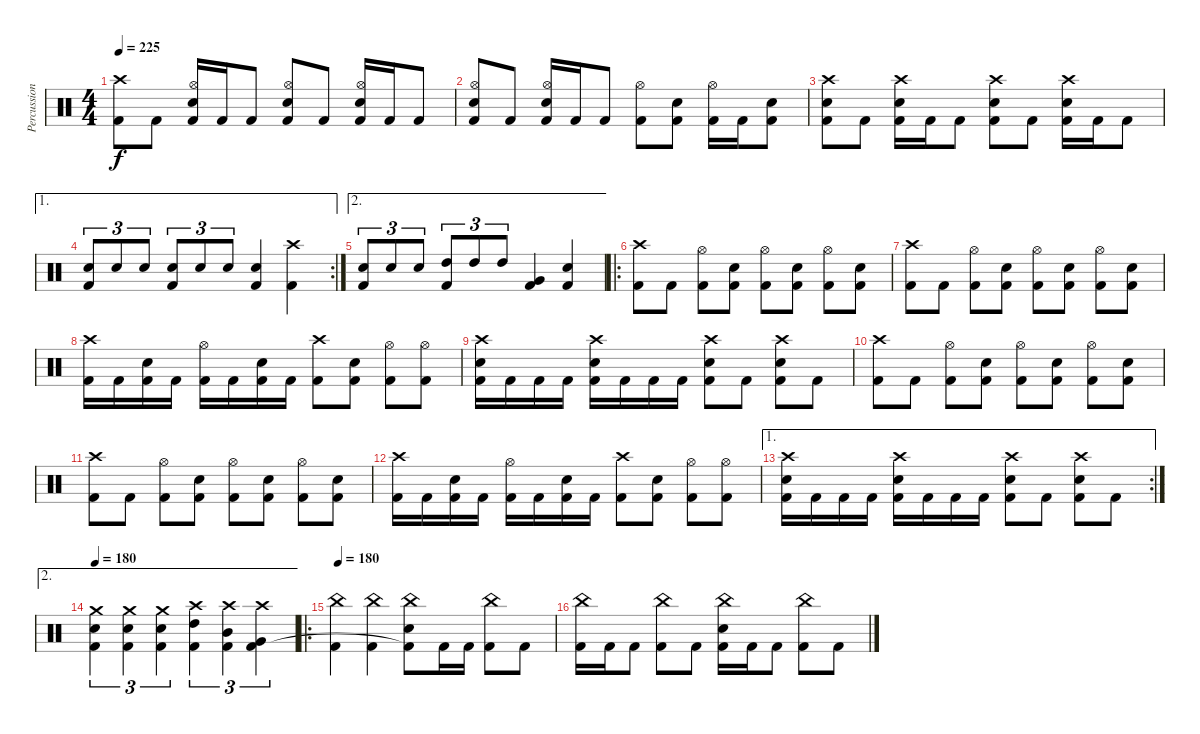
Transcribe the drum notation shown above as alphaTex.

\track ("Percussion" "Percussion") {instrument percussion}
\staff {score}
\articulation defaults
\ts (4 4)
\tempo 225
\clef neutral
\ks c
("Crash high (hit)" "Kick (hit) 2").8{dy f} "Kick (hit) 2".8 ("Hi-Hat (open)" "Snare (hit) 2" "Kick (hit) 2").16 "Kick (hit) 2".16 "Kick (hit) 2".8 ("Hi-Hat (open)" "Snare (hit) 2" "Kick (hit) 2").8 "Kick (hit) 2".8 ("Hi-Hat (open)" "Snare (hit) 2" "Kick (hit) 2").16 "Kick (hit) 2".16 "Kick (hit) 2".8 |
("Hi-Hat (open)" "Snare (hit) 2" "Kick (hit) 2").8 "Kick (hit) 2".8 ("Hi-Hat (open)" "Snare (hit) 2" "Kick (hit) 2").16 "Kick (hit) 2".16 "Kick (hit) 2".8 ("Hi-Hat (open)" "Kick (hit) 2").8 ("Snare (hit) 2" "Kick (hit) 2").8 ("Hi-Hat (open)" "Kick (hit) 2").16 "Kick (hit) 2".16 ("Snare (hit) 2" "Kick (hit) 2").8 |
("Crash high (hit)" "Snare (hit) 2" "Kick (hit) 2").8 "Kick (hit) 2".8 ("Crash high (hit)" "Snare (hit) 2" "Kick (hit) 2").16 "Kick (hit) 2".16 "Kick (hit) 2".8 ("Crash high (hit)" "Snare (hit) 2" "Kick (hit) 2").8 "Kick (hit) 2".8 ("Crash high (hit)" "Snare (hit) 2" "Kick (hit) 2").16 "Kick (hit) 2".16 "Kick (hit) 2".8 |
\ae 1
\rc 2
("Snare (hit) 2" "Kick (hit) 2").8{tu (3 2)} "Snare (hit) 2".8{tu (3 2)} "Snare (hit) 2".8{tu (3 2)} ("Snare (hit) 2" "Kick (hit) 2").8{tu (3 2)} "Snare (hit) 2".8{tu (3 2)} "Snare (hit) 2".8{tu (3 2)} ("Snare (hit) 2" "Kick (hit) 2").4 ("Crash high (hit)" "Kick (hit) 2").4 |
\ae 2
("Snare (hit) 2" "Kick (hit) 2").8{tu (3 2)} "Snare (hit) 2".8{tu (3 2)} "Snare (hit) 2".8{tu (3 2)} ("High Tom (hit)" "Kick (hit) 2").8{tu (3 2)} "High Tom (hit)".8{tu (3 2)} "High Tom (hit)".8{tu (3 2)} ("Very Low Tom (hit)" "Kick (hit) 2").4 ("Snare (hit) 2" "Kick (hit) 2").4 |
\ro
("Crash high (hit)" "Kick (hit) 2").8 "Kick (hit) 2".8 ("Hi-Hat (open)" "Kick (hit) 2").8 ("Snare (hit) 2" "Kick (hit) 2").8 ("Hi-Hat (open)" "Kick (hit) 2").8 ("Snare (hit) 2" "Kick (hit) 2").8 ("Hi-Hat (open)" "Kick (hit) 2").8 ("Snare (hit) 2" "Kick (hit) 2").8 |
("Crash high (hit)" "Kick (hit) 2").8 "Kick (hit) 2".8 ("Hi-Hat (open)" "Kick (hit) 2").8 ("Snare (hit) 2" "Kick (hit) 2").8 ("Hi-Hat (open)" "Kick (hit) 2").8 ("Snare (hit) 2" "Kick (hit) 2").8 ("Hi-Hat (open)" "Kick (hit) 2").8 ("Snare (hit) 2" "Kick (hit) 2").8 |
("Crash high (hit)" "Kick (hit) 2").16 "Kick (hit) 2".16 ("Snare (hit) 2" "Kick (hit) 2").16 "Kick (hit) 2".16 ("Hi-Hat (open)" "Kick (hit) 2").16 "Kick (hit) 2".16 ("Snare (hit) 2" "Kick (hit) 2").16 "Kick (hit) 2".16 ("Crash high (hit)" "Kick (hit) 2").8 ("Snare (hit) 2" "Kick (hit) 2").8 ("Hi-Hat (open)" "Kick (hit) 2").8 ("Hi-Hat (open)" "Kick (hit) 2").8 |
("Crash high (hit)" "Snare (hit) 2" "Kick (hit) 2").16 "Kick (hit) 2".16 "Kick (hit) 2".16 "Kick (hit) 2".16 ("Crash high (hit)" "Snare (hit) 2" "Kick (hit) 2").16 "Kick (hit) 2".16 "Kick (hit) 2".16 "Kick (hit) 2".16 ("Crash high (hit)" "Snare (hit) 2" "Kick (hit) 2").8 "Kick (hit) 2".8 ("Crash high (hit)" "Snare (hit) 2" "Kick (hit) 2").8 "Kick (hit) 2".8 |
("Crash high (hit)" "Kick (hit) 2").8 "Kick (hit) 2".8 ("Hi-Hat (open)" "Kick (hit) 2").8 ("Snare (hit) 2" "Kick (hit) 2").8 ("Hi-Hat (open)" "Kick (hit) 2").8 ("Snare (hit) 2" "Kick (hit) 2").8 ("Hi-Hat (open)" "Kick (hit) 2").8 ("Snare (hit) 2" "Kick (hit) 2").8 |
("Crash high (hit)" "Kick (hit) 2").8 "Kick (hit) 2".8 ("Hi-Hat (open)" "Kick (hit) 2").8 ("Snare (hit) 2" "Kick (hit) 2").8 ("Hi-Hat (open)" "Kick (hit) 2").8 ("Snare (hit) 2" "Kick (hit) 2").8 ("Hi-Hat (open)" "Kick (hit) 2").8 ("Snare (hit) 2" "Kick (hit) 2").8 |
("Crash high (hit)" "Kick (hit) 2").16 "Kick (hit) 2".16 ("Snare (hit) 2" "Kick (hit) 2").16 "Kick (hit) 2".16 ("Hi-Hat (open)" "Kick (hit) 2").16 "Kick (hit) 2".16 ("Snare (hit) 2" "Kick (hit) 2").16 "Kick (hit) 2".16 ("Crash high (hit)" "Kick (hit) 2").8 ("Snare (hit) 2" "Kick (hit) 2").8 ("Hi-Hat (open)" "Kick (hit) 2").8 ("Hi-Hat (open)" "Kick (hit) 2").8 |
\ae 1
\rc 2
("Crash high (hit)" "Snare (hit) 2" "Kick (hit) 2").16 "Kick (hit) 2".16 "Kick (hit) 2".16 "Kick (hit) 2".16 ("Crash high (hit)" "Snare (hit) 2" "Kick (hit) 2").16 "Kick (hit) 2".16 "Kick (hit) 2".16 "Kick (hit) 2".16 ("Crash high (hit)" "Snare (hit) 2" "Kick (hit) 2").8 "Kick (hit) 2".8 ("Crash high (hit)" "Snare (hit) 2" "Kick (hit) 2").8 "Kick (hit) 2".8 |
\ae 2
\tempo 180
("Crash medium (hit)" "Snare (hit) 2" "Kick (hit) 2").4{tu (3 2)} ("Crash medium (hit)" "Snare (hit) 2" "Kick (hit) 2").4{tu (3 2)} ("Crash medium (hit)" "Snare (hit) 2" "Kick (hit) 2").4{tu (3 2)} ("Crash high (hit)" "High Tom (hit)" "Kick (hit) 2").4{tu (3 2)} ("Crash high (hit)" "Mid Tom (hit)" "Kick (hit) 2").4{tu (3 2)} ("Crash high (hit)" "Very Low Tom (hit)" "Kick (hit) 2").4{tu (3 2)} |
\ro
\tempo 180
("China (hit)" "Kick (hit) 2").4 ("China (hit)" "Kick (hit) 2").4 ("China (hit)" "Snare (hit) 2" "Kick (hit) 2"{t}).8 "Kick (hit) 2".16 "Kick (hit) 2".16 ("China (hit)" "Kick (hit) 2").8 "Kick (hit) 2".8 |
("China (hit)" "Kick (hit) 2").16 "Kick (hit) 2".16 "Kick (hit) 2".8 ("China (hit)" "Kick (hit) 2").8 "Kick (hit) 2".8 ("China (hit)" "Snare (hit) 2" "Kick (hit) 2").16 "Kick (hit) 2".16 "Kick (hit) 2".8 ("China (hit)" "Kick (hit) 2").8 "Kick (hit) 2".8
